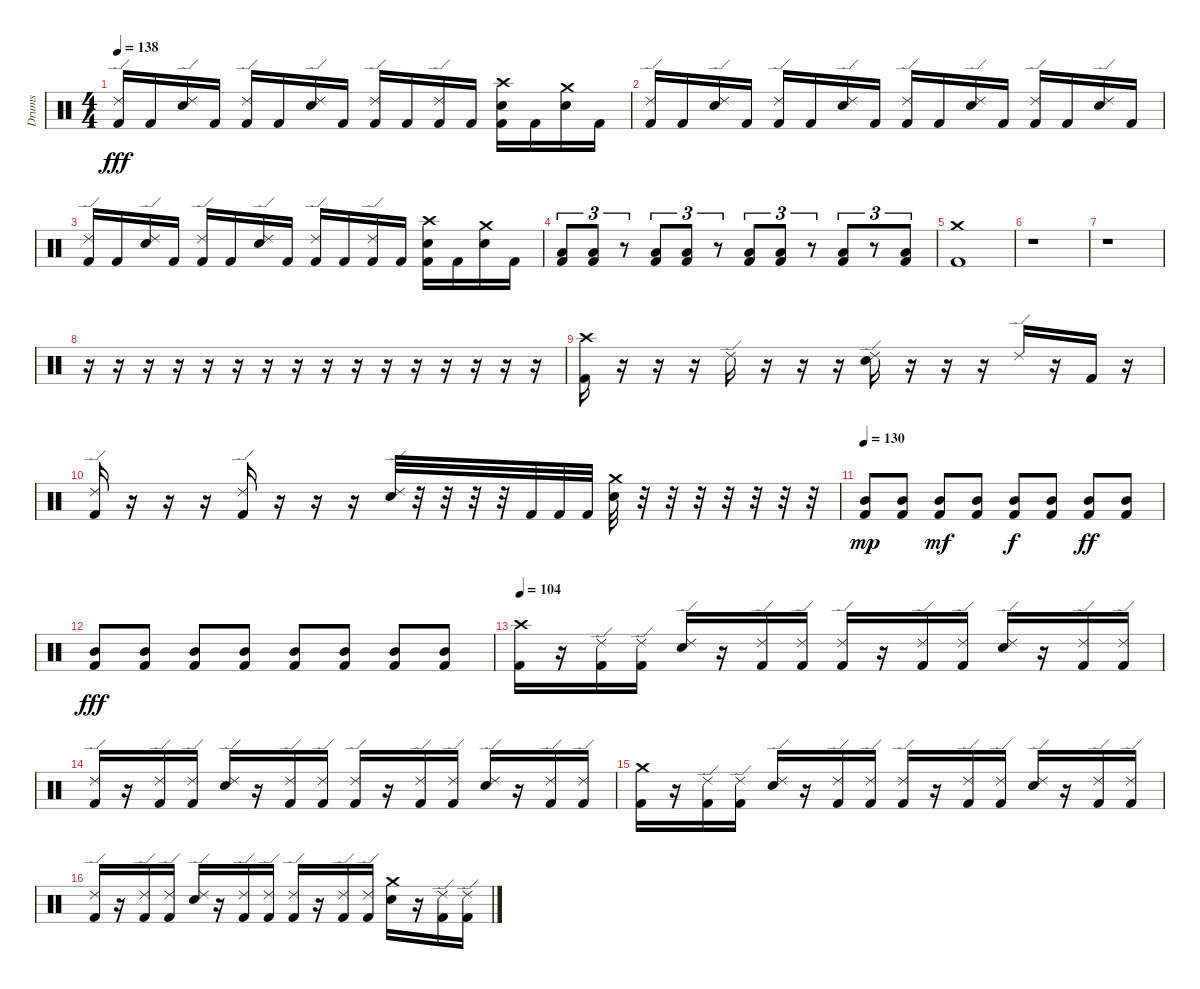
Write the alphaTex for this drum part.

\track ("Drums" "Drums") {instrument percussion}
\staff {score}
\articulation defaults
\ts (4 4)
\tempo 138
\clef neutral
\ks c
("Ride (edge) 2" "Kick (hit) 2").16{dy fff} "Kick (hit) 2".16 ("Ride (edge) 2" "Snare (hit) 2").16 "Kick (hit) 2".16 ("Ride (edge) 2" "Kick (hit) 2").16 "Kick (hit) 2".16 ("Ride (edge) 2" "Snare (hit) 2").16 "Kick (hit) 2".16 ("Ride (edge) 2" "Kick (hit) 2").16 "Kick (hit) 2".16 ("Ride (edge) 2" "Kick (hit) 2").16 "Kick (hit) 2".16 ("Crash high (hit)" "Snare (hit) 2" "Kick (hit) 2").16 "Kick (hit) 2".16 ("Crash medium (hit)" "Snare (hit) 2").16 "Kick (hit) 2".16 |
("Ride (edge) 2" "Kick (hit) 2").16 "Kick (hit) 2".16 ("Ride (edge) 2" "Snare (hit) 2").16 "Kick (hit) 2".16 ("Ride (edge) 2" "Kick (hit) 2").16 "Kick (hit) 2".16 ("Ride (edge) 2" "Snare (hit) 2").16 "Kick (hit) 2".16 ("Ride (edge) 2" "Kick (hit) 2").16 "Kick (hit) 2".16 ("Ride (edge) 2" "Snare (hit) 2").16 "Kick (hit) 2".16 ("Ride (edge) 2" "Kick (hit) 2").16 "Kick (hit) 2".16 ("Ride (edge) 2" "Snare (hit) 2").16 "Kick (hit) 2".16 |
("Ride (edge) 2" "Kick (hit) 2").16 "Kick (hit) 2".16 ("Ride (edge) 2" "Snare (hit) 2").16 "Kick (hit) 2".16 ("Ride (edge) 2" "Kick (hit) 2").16 "Kick (hit) 2".16 ("Ride (edge) 2" "Snare (hit) 2").16 "Kick (hit) 2".16 ("Ride (edge) 2" "Kick (hit) 2").16 "Kick (hit) 2".16 ("Ride (edge) 2" "Kick (hit) 2").16 "Kick (hit) 2".16 ("Crash high (hit)" "Snare (hit) 2" "Kick (hit) 2").16 "Kick (hit) 2".16 ("Crash medium (hit)" "Snare (hit) 2").16 "Kick (hit) 2".16 |
("Low Tom (hit)" "Kick (hit) 2").8{tu (3 2)} ("Low Tom (hit)" "Kick (hit) 2").8{tu (3 2)} r.8{tu (3 2)} ("Low Tom (hit)" "Kick (hit) 2").8{tu (3 2)} ("Low Tom (hit)" "Kick (hit) 2").8{tu (3 2)} r.8{tu (3 2)} ("Low Tom (hit)" "Kick (hit) 2").8{tu (3 2)} ("Low Tom (hit)" "Kick (hit) 2").8{tu (3 2)} r.8{tu (3 2)} ("Low Tom (hit)" "Kick (hit) 2").8{tu (3 2)} r.8{tu (3 2)} ("Low Tom (hit)" "Kick (hit) 2").8{tu (3 2)} |
("Crash medium (hit)" "Kick (hit) 2").1 |
r.1 |
r.1 |
r.16 r.16 r.16 r.16 r.16 r.16 r.16 r.16 r.16 r.16 r.16 r.16 r.16 r.16 r.16 r.16 |
("Crash high (hit)" "Kick (hit) 2").16 r.16 r.16 r.16 "Ride (edge) 2".16 r.16 r.16 r.16 ("Ride (edge) 2" "Snare (hit) 2").16 r.16 r.16 r.16 "Ride (edge) 2".16 r.16 "Kick (hit) 2".16 r.16 |
("Ride (edge) 2" "Kick (hit) 2").16 r.16 r.16 r.16 ("Ride (edge) 2" "Kick (hit) 2").16 r.16 r.16 r.16 ("Ride (edge) 2" "Snare (hit) 2").32 r.32 r.32 r.32 r.32 "Kick (hit) 2".32 "Kick (hit) 2".32 "Kick (hit) 2".32 ("Crash medium (hit)" "Snare (hit) 2").32 r.32 r.32 r.32 r.32 r.32 r.32 r.32 |
\tempo 130
("Mid Tom (hit)" "Kick (hit) 2").8{dy mp} ("Mid Tom (hit)" "Kick (hit) 2").8 ("Mid Tom (hit)" "Kick (hit) 2").8{dy mf} ("Mid Tom (hit)" "Kick (hit) 2").8 ("Mid Tom (hit)" "Kick (hit) 2").8{dy f} ("Mid Tom (hit)" "Kick (hit) 2").8 ("Mid Tom (hit)" "Kick (hit) 2").8{dy ff} ("Mid Tom (hit)" "Kick (hit) 2").8 |
("Mid Tom (hit)" "Kick (hit) 2").8{dy fff} ("Mid Tom (hit)" "Kick (hit) 2").8 ("Mid Tom (hit)" "Kick (hit) 2").8 ("Mid Tom (hit)" "Kick (hit) 2").8 ("Mid Tom (hit)" "Kick (hit) 2").8 ("Mid Tom (hit)" "Kick (hit) 2").8 ("Mid Tom (hit)" "Kick (hit) 2").8 ("Mid Tom (hit)" "Kick (hit) 2").8 |
\tempo 104
("Crash high (hit)" "Kick (hit) 2").16 r.16 ("Ride (edge) 2" "Kick (hit) 2").16 ("Ride (edge) 2" "Kick (hit) 2").16 ("Ride (edge) 2" "Snare (hit) 2").16 r.16 ("Ride (edge) 2" "Kick (hit) 2").16 ("Ride (edge) 2" "Kick (hit) 2").16 ("Ride (edge) 2" "Kick (hit) 2").16 r.16 ("Ride (edge) 2" "Kick (hit) 2").16 ("Ride (edge) 2" "Kick (hit) 2").16 ("Ride (edge) 2" "Snare (hit) 2").16 r.16 ("Ride (edge) 2" "Kick (hit) 2").16 ("Ride (edge) 2" "Kick (hit) 2").16 |
("Ride (edge) 2" "Kick (hit) 2").16 r.16 ("Ride (edge) 2" "Kick (hit) 2").16 ("Ride (edge) 2" "Kick (hit) 2").16 ("Ride (edge) 2" "Snare (hit) 2").16 r.16 ("Ride (edge) 2" "Kick (hit) 2").16 ("Ride (edge) 2" "Kick (hit) 2").16 ("Ride (edge) 2" "Kick (hit) 2").16 r.16 ("Ride (edge) 2" "Kick (hit) 2").16 ("Ride (edge) 2" "Kick (hit) 2").16 ("Ride (edge) 2" "Snare (hit) 2").16 r.16 ("Ride (edge) 2" "Kick (hit) 2").16 ("Ride (edge) 2" "Kick (hit) 2").16 |
("Crash medium (hit)" "Kick (hit) 2").16 r.16 ("Ride (edge) 2" "Kick (hit) 2").16 ("Ride (edge) 2" "Kick (hit) 2").16 ("Ride (edge) 2" "Snare (hit) 2").16 r.16 ("Ride (edge) 2" "Kick (hit) 2").16 ("Ride (edge) 2" "Kick (hit) 2").16 ("Ride (edge) 2" "Kick (hit) 2").16 r.16 ("Ride (edge) 2" "Kick (hit) 2").16 ("Ride (edge) 2" "Kick (hit) 2").16 ("Ride (edge) 2" "Snare (hit) 2").16 r.16 ("Ride (edge) 2" "Kick (hit) 2").16 ("Ride (edge) 2" "Kick (hit) 2").16 |
("Ride (edge) 2" "Kick (hit) 2").16 r.16 ("Ride (edge) 2" "Kick (hit) 2").16 ("Ride (edge) 2" "Kick (hit) 2").16 ("Ride (edge) 2" "Snare (hit) 2").16 r.16 ("Ride (edge) 2" "Kick (hit) 2").16 ("Ride (edge) 2" "Kick (hit) 2").16 ("Ride (edge) 2" "Kick (hit) 2").16 r.16 ("Ride (edge) 2" "Kick (hit) 2").16 ("Ride (edge) 2" "Kick (hit) 2").16 ("Crash medium (hit)" "Snare (hit) 2").16 r.16 ("Ride (edge) 2" "Kick (hit) 2").16 ("Ride (edge) 2" "Kick (hit) 2").16
